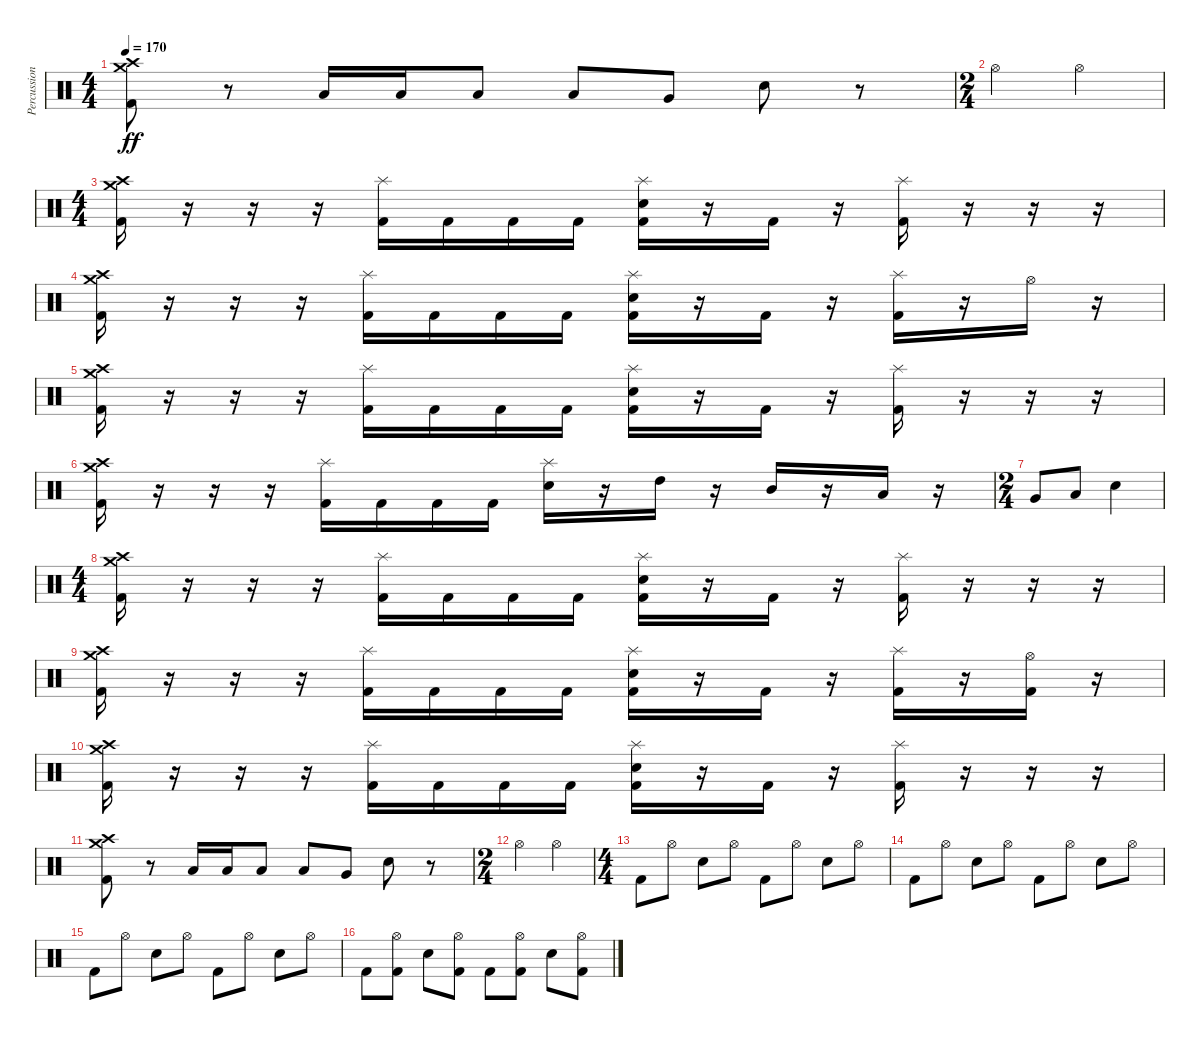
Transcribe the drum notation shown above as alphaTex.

\track ("Percussion" "Percussion") {instrument percussion}
\staff {score}
\articulation defaults
\ts (4 4)
\tempo 170
\clef neutral
\ks c
("Kick (hit) 2" "Crash medium (hit)" "Crash high (hit)").8{dy ff} r.8 "Low Tom (hit)".16 "Low Tom (hit)".16 "Low Tom (hit)".8 "Low Tom (hit)".8 "Very Low Tom (hit)".8 "Electric Snare (hit)".8 r.8 |
\ts (2 4)
"Hi-Hat (open)".4 "Hi-Hat (open)".4 |
\ts (4 4)
("Kick (hit) 2" "Crash medium (hit)" "Crash high (hit)").16 r.16 r.16 r.16 ("Kick (hit) 2" "Splash (hit)").16 "Kick (hit) 2".16 "Kick (hit) 2".16 "Kick (hit) 2".16 ("Kick (hit) 2" "Electric Snare (hit)" "Splash (hit)").16 r.16 "Kick (hit) 2".16 r.16 ("Kick (hit) 2" "Splash (hit)").16 r.16 r.16 r.16 |
("Kick (hit) 2" "Crash medium (hit)" "Crash high (hit)").16 r.16 r.16 r.16 ("Kick (hit) 2" "Splash (hit)").16 "Kick (hit) 2".16 "Kick (hit) 2".16 "Kick (hit) 2".16 ("Kick (hit) 2" "Electric Snare (hit)" "Splash (hit)").16 r.16 "Kick (hit) 2".16 r.16 ("Kick (hit) 2" "Splash (hit)").16 r.16 "Hi-Hat (open)".16 r.16 |
("Kick (hit) 2" "Crash medium (hit)" "Crash high (hit)").16 r.16 r.16 r.16 ("Kick (hit) 2" "Splash (hit)").16 "Kick (hit) 2".16 "Kick (hit) 2".16 "Kick (hit) 2".16 ("Kick (hit) 2" "Electric Snare (hit)" "Splash (hit)").16 r.16 "Kick (hit) 2".16 r.16 ("Kick (hit) 2" "Splash (hit)").16 r.16 r.16 r.16 |
("Kick (hit) 2" "Crash medium (hit)" "Crash high (hit)").16 r.16 r.16 r.16 ("Kick (hit) 2" "Splash (hit)").16 "Kick (hit) 2".16 "Kick (hit) 2".16 "Kick (hit) 2".16 ("Electric Snare (hit)" "Splash (hit)").16 r.16 "High Tom (hit)".16 r.16 "Mid Tom (hit)".16 r.16 "Low Tom (hit)".16 r.16 |
\ts (2 4)
"Very Low Tom (hit)".8 "Low Floor Tom (hit)".8 "Electric Snare (hit)".4 |
\ts (4 4)
("Kick (hit) 2" "Crash medium (hit)" "Crash high (hit)").16 r.16 r.16 r.16 ("Kick (hit) 2" "Splash (hit)").16 "Kick (hit) 2".16 "Kick (hit) 2".16 "Kick (hit) 2".16 ("Kick (hit) 2" "Electric Snare (hit)" "Splash (hit)").16 r.16 "Kick (hit) 2".16 r.16 ("Kick (hit) 2" "Splash (hit)").16 r.16 r.16 r.16 |
("Kick (hit) 2" "Crash medium (hit)" "Crash high (hit)").16 r.16 r.16 r.16 ("Kick (hit) 2" "Splash (hit)").16 "Kick (hit) 2".16 "Kick (hit) 2".16 "Kick (hit) 2".16 ("Kick (hit) 2" "Electric Snare (hit)" "Splash (hit)").16 r.16 "Kick (hit) 2".16 r.16 ("Kick (hit) 2" "Splash (hit)").16 r.16 ("Kick (hit) 2" "Hi-Hat (open)").16 r.16 |
("Kick (hit) 2" "Crash medium (hit)" "Crash high (hit)").16 r.16 r.16 r.16 ("Kick (hit) 2" "Splash (hit)").16 "Kick (hit) 2".16 "Kick (hit) 2".16 "Kick (hit) 2".16 ("Kick (hit) 2" "Electric Snare (hit)" "Splash (hit)").16 r.16 "Kick (hit) 2".16 r.16 ("Kick (hit) 2" "Splash (hit)").16 r.16 r.16 r.16 |
("Kick (hit) 2" "Crash medium (hit)" "Crash high (hit)").8 r.8 "Low Tom (hit)".16 "Low Tom (hit)".16 "Low Tom (hit)".8 "Low Tom (hit)".8 "Very Low Tom (hit)".8 "Electric Snare (hit)".8 r.8 |
\ts (2 4)
"Hi-Hat (open)".4 "Hi-Hat (open)".4 |
\ts (4 4)
"Kick (hit) 2".8 "Hi-Hat (open)".8 "Electric Snare (hit)".8 "Hi-Hat (open)".8 "Kick (hit) 2".8 "Hi-Hat (open)".8 "Electric Snare (hit)".8 "Hi-Hat (open)".8 |
"Kick (hit) 2".8 "Hi-Hat (open)".8 "Electric Snare (hit)".8 "Hi-Hat (open)".8 "Kick (hit) 2".8 "Hi-Hat (open)".8 "Electric Snare (hit)".8 "Hi-Hat (open)".8 |
"Kick (hit) 2".8 "Hi-Hat (open)".8 "Electric Snare (hit)".8 "Hi-Hat (open)".8 "Kick (hit) 2".8 "Hi-Hat (open)".8 "Electric Snare (hit)".8 "Hi-Hat (open)".8 |
"Kick (hit) 2".8 ("Kick (hit) 2" "Hi-Hat (open)").8 "Electric Snare (hit)".8 ("Kick (hit) 2" "Hi-Hat (open)").8 "Kick (hit) 2".8 ("Kick (hit) 2" "Hi-Hat (open)").8 "Electric Snare (hit)".8 ("Kick (hit) 2" "Hi-Hat (open)").8
